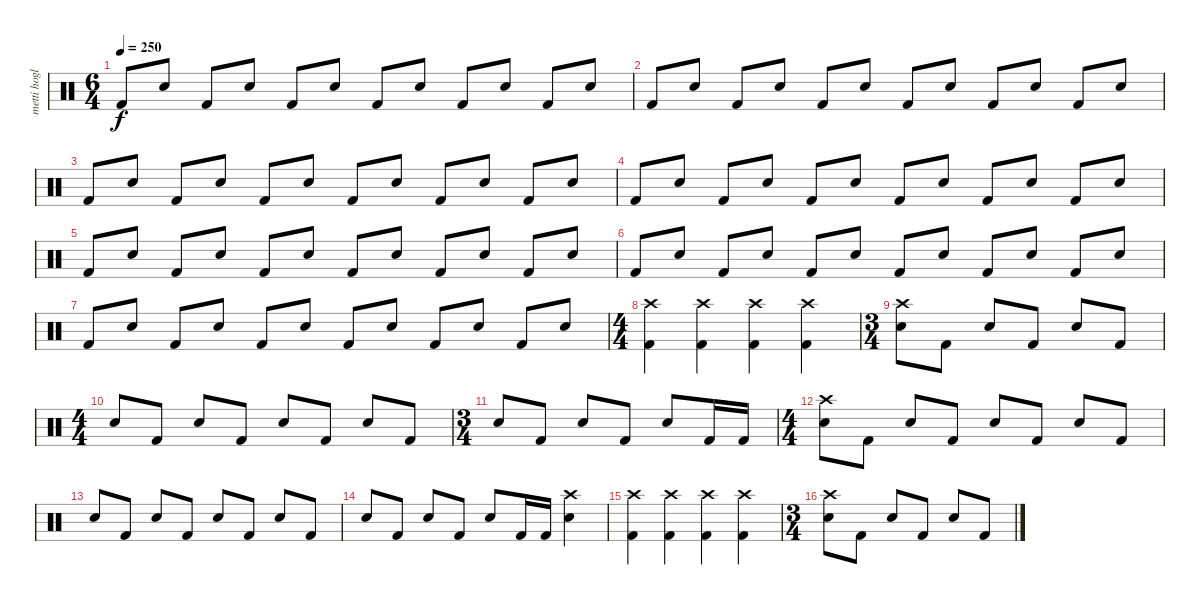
\track ("metti hoglan" "metti hogl") {instrument percussion}
\staff {score}
\articulation defaults
\ts (6 4)
\tempo 250
\clef neutral
\ks c "Kick (hit) 2".8{dy f} "Snare (hit) 2".8 "Kick (hit) 2".8 "Snare (hit) 2".8 "Kick (hit) 2".8 "Snare (hit) 2".8 "Kick (hit) 2".8 "Snare (hit) 2".8 "Kick (hit) 2".8 "Snare (hit) 2".8 "Kick (hit) 2".8 "Snare (hit) 2".8
|
"Kick (hit) 2".8 "Snare (hit) 2".8 "Kick (hit) 2".8 "Snare (hit) 2".8 "Kick (hit) 2".8 "Snare (hit) 2".8 "Kick (hit) 2".8 "Snare (hit) 2".8 "Kick (hit) 2".8 "Snare (hit) 2".8 "Kick (hit) 2".8 "Snare (hit) 2".8 |
"Kick (hit) 2".8 "Snare (hit) 2".8 "Kick (hit) 2".8 "Snare (hit) 2".8 "Kick (hit) 2".8 "Snare (hit) 2".8 "Kick (hit) 2".8 "Snare (hit) 2".8 "Kick (hit) 2".8 "Snare (hit) 2".8 "Kick (hit) 2".8 "Snare (hit) 2".8 |
"Kick (hit) 2".8 "Snare (hit) 2".8 "Kick (hit) 2".8 "Snare (hit) 2".8 "Kick (hit) 2".8 "Snare (hit) 2".8 "Kick (hit) 2".8 "Snare (hit) 2".8 "Kick (hit) 2".8 "Snare (hit) 2".8 "Kick (hit) 2".8 "Snare (hit) 2".8 |
"Kick (hit) 2".8 "Snare (hit) 2".8 "Kick (hit) 2".8 "Snare (hit) 2".8 "Kick (hit) 2".8 "Snare (hit) 2".8 "Kick (hit) 2".8 "Snare (hit) 2".8 "Kick (hit) 2".8 "Snare (hit) 2".8 "Kick (hit) 2".8 "Snare (hit) 2".8 |
"Kick (hit) 2".8 "Snare (hit) 2".8 "Kick (hit) 2".8 "Snare (hit) 2".8 "Kick (hit) 2".8 "Snare (hit) 2".8 "Kick (hit) 2".8 "Snare (hit) 2".8 "Kick (hit) 2".8 "Snare (hit) 2".8 "Kick (hit) 2".8 "Snare (hit) 2".8 |
"Kick (hit) 2".8 "Snare (hit) 2".8 "Kick (hit) 2".8 "Snare (hit) 2".8 "Kick (hit) 2".8 "Snare (hit) 2".8 "Kick (hit) 2".8 "Snare (hit) 2".8 "Kick (hit) 2".8 "Snare (hit) 2".8 "Kick (hit) 2".8 "Snare (hit) 2".8 |
\ts (4 4)
("Crash high (hit)" "Kick (hit) 2").4 ("Crash high (hit)" "Kick (hit) 2").4 ("Crash high (hit)" "Kick (hit) 2").4 ("Crash high (hit)" "Kick (hit) 2").4 |
\ts (3 4)
("Crash high (hit)" "Snare (hit) 2").8 "Kick (hit) 2".8 "Snare (hit) 2".8 "Kick (hit) 2".8 "Snare (hit) 2".8 "Kick (hit) 2".8 |
\ts (4 4)
"Snare (hit) 2".8 "Kick (hit) 2".8 "Snare (hit) 2".8 "Kick (hit) 2".8 "Snare (hit) 2".8 "Kick (hit) 2".8 "Snare (hit) 2".8 "Kick (hit) 2".8 |
\ts (3 4)
"Snare (hit) 2".8 "Kick (hit) 2".8 "Snare (hit) 2".8 "Kick (hit) 2".8 "Snare (hit) 2".8 "Kick (hit) 2".16 "Kick (hit) 2".16 |
\ts (4 4)
("Crash high (hit)" "Snare (hit) 2").8 "Kick (hit) 2".8 "Snare (hit) 2".8 "Kick (hit) 2".8 "Snare (hit) 2".8 "Kick (hit) 2".8 "Snare (hit) 2".8 "Kick (hit) 2".8 |
"Snare (hit) 2".8 "Kick (hit) 2".8 "Snare (hit) 2".8 "Kick (hit) 2".8 "Snare (hit) 2".8 "Kick (hit) 2".8 "Snare (hit) 2".8 "Kick (hit) 2".8 |
"Snare (hit) 2".8 "Kick (hit) 2".8 "Snare (hit) 2".8 "Kick (hit) 2".8 "Snare (hit) 2".8 "Kick (hit) 2".16 "Kick (hit) 2".16 ("Crash high (hit)" "Snare (hit) 2").4 |
("Crash high (hit)" "Kick (hit) 2").4 ("Crash high (hit)" "Kick (hit) 2").4 ("Crash high (hit)" "Kick (hit) 2").4 ("Crash high (hit)" "Kick (hit) 2").4 |
\ts (3 4)
("Crash high (hit)" "Snare (hit) 2").8 "Kick (hit) 2".8 "Snare (hit) 2".8 "Kick (hit) 2".8 "Snare (hit) 2".8 "Kick (hit) 2".8
